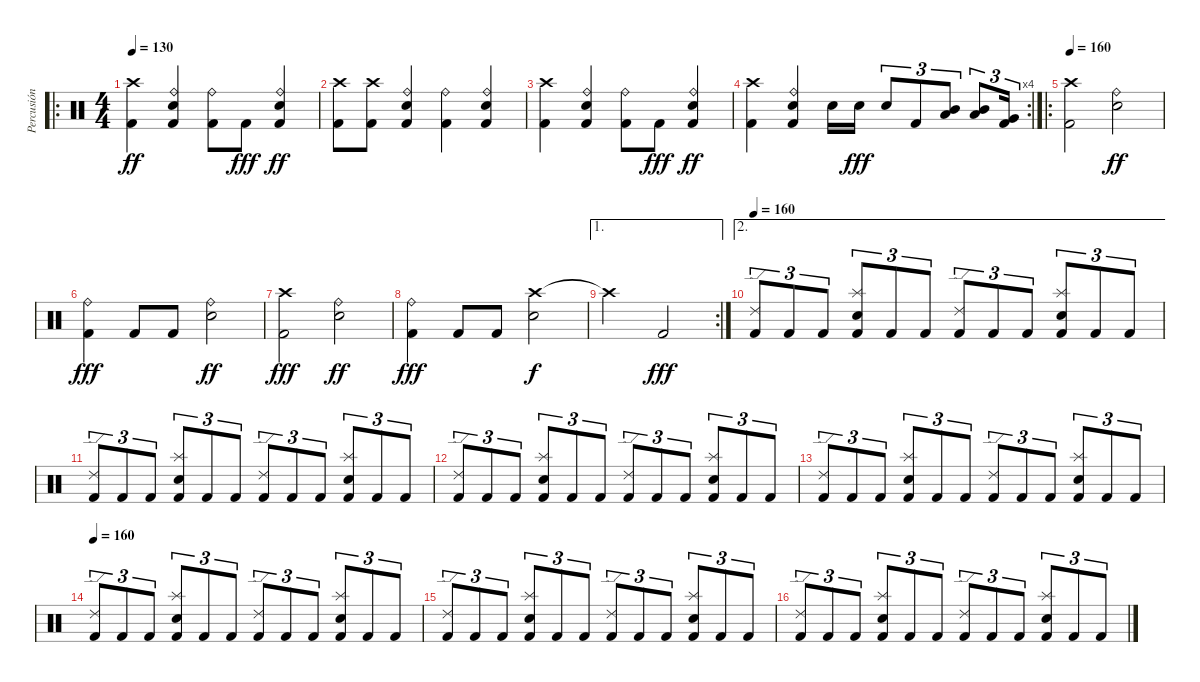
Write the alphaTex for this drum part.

\track ("Percusión" "Percusión") {instrument percussion}
\staff {score}
\articulation defaults
\ro
\ts (4 4)
\tempo 130
\clef neutral
\ks c
("Crash high (hit)" "Kick (hit) 2").4{dy ff} ("Ride (bell)" "Snare (hit) 2" "Kick (hit) 2").4 ("Ride (bell)" "Kick (hit) 2").8 "Kick (hit) 2".8{dy fff} ("Ride (bell)" "Snare (hit) 2" "Kick (hit) 2").4{dy ff} |
("Crash high (hit)" "Kick (hit) 2").8 ("Crash high (hit)" "Kick (hit) 2").8 ("Ride (bell)" "Snare (hit) 2" "Kick (hit) 2").4 ("Ride (bell)" "Kick (hit) 2").4 ("Ride (bell)" "Snare (hit) 2" "Kick (hit) 2").4 |
("Crash high (hit)" "Kick (hit) 2").4 ("Ride (bell)" "Snare (hit) 2" "Kick (hit) 2").4 ("Ride (bell)" "Kick (hit) 2").8 "Kick (hit) 2".8{dy fff} ("Ride (bell)" "Snare (hit) 2" "Kick (hit) 2").4{dy ff} |
\rc 4
("Crash high (hit)" "Kick (hit) 2").4 ("Ride (bell)" "Snare (hit) 2" "Kick (hit) 2").4 "Snare (hit) 2".16 "Snare (hit) 2".16{dy fff} "Snare (hit) 2".8{tu (3 2)} "Kick (hit) 2".8{tu (3 2)} ("Low Tom (hit)" "Mid Tom (hit)").8{tu (3 2)} ("Low Tom (hit)" "Mid Tom (hit)").8{tu (3 2)} ("Very Low Tom (hit)" "Kick (hit) 2").16{tu (3 2)} |
\ro
\tempo 160
("Crash high (hit)" "Kick (hit) 2").2 ("Ride (bell)" "Snare (hit) 2").2{dy ff} |
("Ride (bell)" "Kick (hit) 2").4{dy fff} "Kick (hit) 2".8 "Kick (hit) 2".8 ("Ride (bell)" "Snare (hit) 2").2{dy ff} |
("Crash high (hit)" "Kick (hit) 2").2{dy fff} ("Ride (bell)" "Snare (hit) 2").2{dy ff} |
("Ride (bell)" "Kick (hit) 2").4{dy fff} "Kick (hit) 2".8 "Kick (hit) 2".8 ("Crash high (hit)" "Snare (hit) 2").2{dy f} |
\ae 1
\rc 2 "Crash high (hit)"{t}.2 "Kick (hit) 2".2{dy fff}
|
\ae 2
\tempo 160
("Ride (edge) 2" "Kick (hit) 2").8{tu (3 2)} "Kick (hit) 2".8{tu (3 2)} "Kick (hit) 2".8{tu (3 2)} ("Splash (hit)" "Electric Snare (hit)" "Kick (hit) 2").8{tu (3 2)} "Kick (hit) 2".8{tu (3 2)} "Kick (hit) 2".8{tu (3 2)} ("Ride (edge) 2" "Kick (hit) 2").8{tu (3 2)} "Kick (hit) 2".8{tu (3 2)} "Kick (hit) 2".8{tu (3 2)} ("Splash (hit)" "Electric Snare (hit)" "Kick (hit) 2").8{tu (3 2)} "Kick (hit) 2".8{tu (3 2)} "Kick (hit) 2".8{tu (3 2)} |
("Ride (edge) 2" "Kick (hit) 2").8{tu (3 2)} "Kick (hit) 2".8{tu (3 2)} "Kick (hit) 2".8{tu (3 2)} ("Splash (hit)" "Electric Snare (hit)" "Kick (hit) 2").8{tu (3 2)} "Kick (hit) 2".8{tu (3 2)} "Kick (hit) 2".8{tu (3 2)} ("Ride (edge) 2" "Kick (hit) 2").8{tu (3 2)} "Kick (hit) 2".8{tu (3 2)} "Kick (hit) 2".8{tu (3 2)} ("Splash (hit)" "Electric Snare (hit)" "Kick (hit) 2").8{tu (3 2)} "Kick (hit) 2".8{tu (3 2)} "Kick (hit) 2".8{tu (3 2)} |
("Ride (edge) 2" "Kick (hit) 2").8{tu (3 2)} "Kick (hit) 2".8{tu (3 2)} "Kick (hit) 2".8{tu (3 2)} ("Splash (hit)" "Electric Snare (hit)" "Kick (hit) 2").8{tu (3 2)} "Kick (hit) 2".8{tu (3 2)} "Kick (hit) 2".8{tu (3 2)} ("Ride (edge) 2" "Kick (hit) 2").8{tu (3 2)} "Kick (hit) 2".8{tu (3 2)} "Kick (hit) 2".8{tu (3 2)} ("Splash (hit)" "Electric Snare (hit)" "Kick (hit) 2").8{tu (3 2)} "Kick (hit) 2".8{tu (3 2)} "Kick (hit) 2".8{tu (3 2)} |
("Ride (edge) 2" "Kick (hit) 2").8{tu (3 2)} "Kick (hit) 2".8{tu (3 2)} "Kick (hit) 2".8{tu (3 2)} ("Splash (hit)" "Electric Snare (hit)" "Kick (hit) 2").8{tu (3 2)} "Kick (hit) 2".8{tu (3 2)} "Kick (hit) 2".8{tu (3 2)} ("Ride (edge) 2" "Kick (hit) 2").8{tu (3 2)} "Kick (hit) 2".8{tu (3 2)} "Kick (hit) 2".8{tu (3 2)} ("Splash (hit)" "Electric Snare (hit)" "Kick (hit) 2").8{tu (3 2)} "Kick (hit) 2".8{tu (3 2)} "Kick (hit) 2".8{tu (3 2)} |
\tempo 160
("Ride (edge) 2" "Kick (hit) 2").8{tu (3 2)} "Kick (hit) 2".8{tu (3 2)} "Kick (hit) 2".8{tu (3 2)} ("Splash (hit)" "Electric Snare (hit)" "Kick (hit) 2").8{tu (3 2)} "Kick (hit) 2".8{tu (3 2)} "Kick (hit) 2".8{tu (3 2)} ("Ride (edge) 2" "Kick (hit) 2").8{tu (3 2)} "Kick (hit) 2".8{tu (3 2)} "Kick (hit) 2".8{tu (3 2)} ("Splash (hit)" "Electric Snare (hit)" "Kick (hit) 2").8{tu (3 2)} "Kick (hit) 2".8{tu (3 2)} "Kick (hit) 2".8{tu (3 2)} |
("Ride (edge) 2" "Kick (hit) 2").8{tu (3 2)} "Kick (hit) 2".8{tu (3 2)} "Kick (hit) 2".8{tu (3 2)} ("Splash (hit)" "Electric Snare (hit)" "Kick (hit) 2").8{tu (3 2)} "Kick (hit) 2".8{tu (3 2)} "Kick (hit) 2".8{tu (3 2)} ("Ride (edge) 2" "Kick (hit) 2").8{tu (3 2)} "Kick (hit) 2".8{tu (3 2)} "Kick (hit) 2".8{tu (3 2)} ("Splash (hit)" "Electric Snare (hit)" "Kick (hit) 2").8{tu (3 2)} "Kick (hit) 2".8{tu (3 2)} "Kick (hit) 2".8{tu (3 2)} |
("Ride (edge) 2" "Kick (hit) 2").8{tu (3 2)} "Kick (hit) 2".8{tu (3 2)} "Kick (hit) 2".8{tu (3 2)} ("Splash (hit)" "Electric Snare (hit)" "Kick (hit) 2").8{tu (3 2)} "Kick (hit) 2".8{tu (3 2)} "Kick (hit) 2".8{tu (3 2)} ("Ride (edge) 2" "Kick (hit) 2").8{tu (3 2)} "Kick (hit) 2".8{tu (3 2)} "Kick (hit) 2".8{tu (3 2)} ("Splash (hit)" "Electric Snare (hit)" "Kick (hit) 2").8{tu (3 2)} "Kick (hit) 2".8{tu (3 2)} "Kick (hit) 2".8{tu (3 2)}
